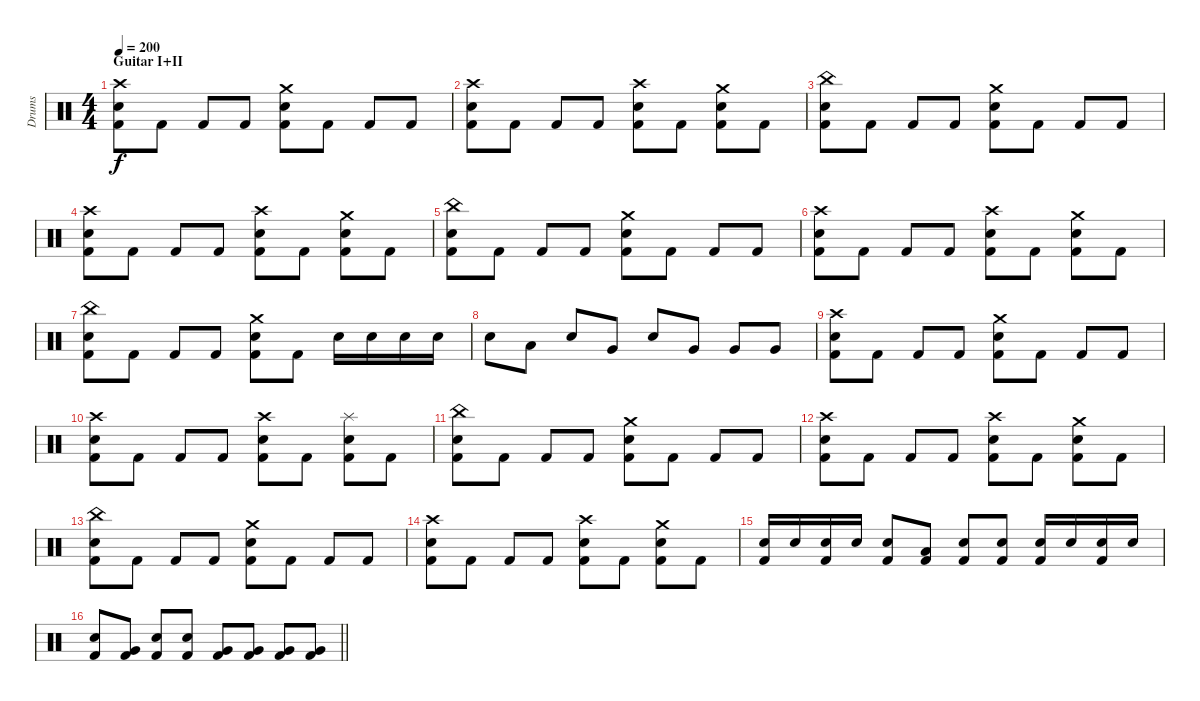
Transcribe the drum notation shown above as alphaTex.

\track ("Drums" "Drums") {instrument percussion}
\staff {score}
\articulation defaults
\ts (4 4)
\section ("" "Guitar I+II")
\tempo 200
\clef neutral
\ks c
("Crash high (hit)" "Electric Snare (hit)" "Kick (hit) 2").8{dy f} "Kick (hit) 2".8 "Kick (hit) 2".8 "Kick (hit) 2".8 ("Crash medium (hit)" "Electric Snare (hit)" "Kick (hit) 2").8 "Kick (hit) 2".8 "Kick (hit) 2".8 "Kick (hit) 2".8 |
("Crash high (hit)" "Electric Snare (hit)" "Kick (hit) 2").8 "Kick (hit) 2".8 "Kick (hit) 2".8 "Kick (hit) 2".8 ("Crash high (hit)" "Electric Snare (hit)" "Kick (hit) 2").8 "Kick (hit) 2".8 ("Crash medium (hit)" "Electric Snare (hit)" "Kick (hit) 2").8 "Kick (hit) 2".8 |
("China (hit)" "Electric Snare (hit)" "Kick (hit) 2").8 "Kick (hit) 2".8 "Kick (hit) 2".8 "Kick (hit) 2".8 ("Crash medium (hit)" "Electric Snare (hit)" "Kick (hit) 2").8 "Kick (hit) 2".8 "Kick (hit) 2".8 "Kick (hit) 2".8 |
("Crash high (hit)" "Electric Snare (hit)" "Kick (hit) 2").8 "Kick (hit) 2".8 "Kick (hit) 2".8 "Kick (hit) 2".8 ("Crash high (hit)" "Electric Snare (hit)" "Kick (hit) 2").8 "Kick (hit) 2".8 ("Crash medium (hit)" "Electric Snare (hit)" "Kick (hit) 2").8 "Kick (hit) 2".8 |
("China (hit)" "Electric Snare (hit)" "Kick (hit) 2").8 "Kick (hit) 2".8 "Kick (hit) 2".8 "Kick (hit) 2".8 ("Crash medium (hit)" "Electric Snare (hit)" "Kick (hit) 2").8 "Kick (hit) 2".8 "Kick (hit) 2".8 "Kick (hit) 2".8 |
("Crash high (hit)" "Electric Snare (hit)" "Kick (hit) 2").8 "Kick (hit) 2".8 "Kick (hit) 2".8 "Kick (hit) 2".8 ("Crash high (hit)" "Electric Snare (hit)" "Kick (hit) 2").8 "Kick (hit) 2".8 ("Crash medium (hit)" "Electric Snare (hit)" "Kick (hit) 2").8 "Kick (hit) 2".8 |
("China (hit)" "Electric Snare (hit)" "Kick (hit) 2").8 "Kick (hit) 2".8 "Kick (hit) 2".8 "Kick (hit) 2".8 ("Crash medium (hit)" "Electric Snare (hit)" "Kick (hit) 2").8 "Kick (hit) 2".8 "Electric Snare (hit)".16 "Electric Snare (hit)".16 "Electric Snare (hit)".16 "Electric Snare (hit)".16 |
"Electric Snare (hit)".8 "Low Tom (hit)".8 "Electric Snare (hit)".8 "Very Low Tom (hit)".8 "Electric Snare (hit)".8 "Very Low Tom (hit)".8 "Very Low Tom (hit)".8 "Very Low Tom (hit)".8 |
("Crash high (hit)" "Electric Snare (hit)" "Kick (hit) 2").8 "Kick (hit) 2".8 "Kick (hit) 2".8 "Kick (hit) 2".8 ("Crash medium (hit)" "Electric Snare (hit)" "Kick (hit) 2").8 "Kick (hit) 2".8 "Kick (hit) 2".8 "Kick (hit) 2".8 |
("Crash high (hit)" "Electric Snare (hit)" "Kick (hit) 2").8 "Kick (hit) 2".8 "Kick (hit) 2".8 "Kick (hit) 2".8 ("Crash high (hit)" "Electric Snare (hit)" "Kick (hit) 2").8 "Kick (hit) 2".8 ("Splash (hit)" "Electric Snare (hit)" "Kick (hit) 2").8 "Kick (hit) 2".8 |
("China (hit)" "Electric Snare (hit)" "Kick (hit) 2").8 "Kick (hit) 2".8 "Kick (hit) 2".8 "Kick (hit) 2".8 ("Crash medium (hit)" "Electric Snare (hit)" "Kick (hit) 2").8 "Kick (hit) 2".8 "Kick (hit) 2".8 "Kick (hit) 2".8 |
("Crash high (hit)" "Electric Snare (hit)" "Kick (hit) 2").8 "Kick (hit) 2".8 "Kick (hit) 2".8 "Kick (hit) 2".8 ("Crash high (hit)" "Electric Snare (hit)" "Kick (hit) 2").8 "Kick (hit) 2".8 ("Crash medium (hit)" "Electric Snare (hit)" "Kick (hit) 2").8 "Kick (hit) 2".8 |
("China (hit)" "Electric Snare (hit)" "Kick (hit) 2").8 "Kick (hit) 2".8 "Kick (hit) 2".8 "Kick (hit) 2".8 ("Crash medium (hit)" "Electric Snare (hit)" "Kick (hit) 2").8 "Kick (hit) 2".8 "Kick (hit) 2".8 "Kick (hit) 2".8 |
("Crash high (hit)" "Electric Snare (hit)" "Kick (hit) 2").8 "Kick (hit) 2".8 "Kick (hit) 2".8 "Kick (hit) 2".8 ("Crash high (hit)" "Electric Snare (hit)" "Kick (hit) 2").8 "Kick (hit) 2".8 ("Crash medium (hit)" "Electric Snare (hit)" "Kick (hit) 2").8 "Kick (hit) 2".8 |
("Electric Snare (hit)" "Kick (hit) 2").16 "Electric Snare (hit)".16 ("Electric Snare (hit)" "Kick (hit) 2").16 "Electric Snare (hit)".16 ("Electric Snare (hit)" "Kick (hit) 2").8 ("Low Tom (hit)" "Kick (hit) 2").8 ("Electric Snare (hit)" "Kick (hit) 2").8 ("Electric Snare (hit)" "Kick (hit) 2").8 ("Electric Snare (hit)" "Kick (hit) 2").16 "Electric Snare (hit)".16 ("Electric Snare (hit)" "Kick (hit) 2").16 "Electric Snare (hit)".16 |
\barLineRight lightlight
("Electric Snare (hit)" "Kick (hit) 2").8 ("Very Low Tom (hit)" "Kick (hit) 2").8 ("Electric Snare (hit)" "Kick (hit) 2").8 ("Electric Snare (hit)" "Kick (hit) 2").8 ("Very Low Tom (hit)" "Kick (hit) 2").8 ("Very Low Tom (hit)" "Kick (hit) 2").8 ("Very Low Tom (hit)" "Kick (hit) 2").8 ("Very Low Tom (hit)" "Kick (hit) 2").8
